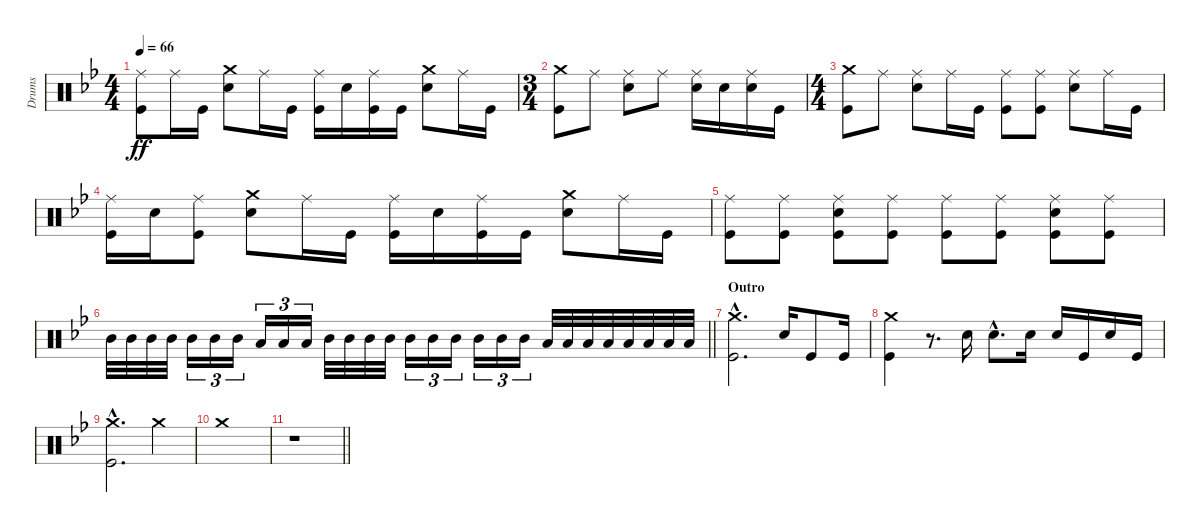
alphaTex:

\track ("Drums" "Drums") {instrument percussion}
\staff {score}
\articulation defaults
\ts (4 4)
\tempo 66
\clef neutral
\ks bb
("Kick (hit)" "Ride (middle)").8{dy ff} "Ride (middle)".16 "Kick (hit)".16 ("Snare (hit) 2" "Crash medium (hit)").8 "Ride (middle)".16 "Kick (hit)".16 ("Kick (hit)" "Ride (middle)").16 "Snare (hit) 2".16 ("Kick (hit)" "Ride (middle)").16 "Kick (hit)".16 ("Snare (hit) 2" "Crash medium (hit)").8 "Ride (middle)".16 "Kick (hit)".16 |
\ts (3 4)
("Kick (hit)" "Crash medium (hit)").8 "Ride (middle)".8 ("Snare (hit) 2" "Ride (middle)").8 "Ride (middle)".8 ("Snare (hit) 2" "Ride (middle)").16 "Snare (hit) 2".16 ("Snare (hit) 2" "Ride (middle)").16 "Kick (hit)".16 |
\ts (4 4)
("Kick (hit)" "Crash medium (hit)").8 "Ride (middle)".8 ("Snare (hit) 2" "Ride (middle)").8 "Ride (middle)".16 "Kick (hit)".16 ("Kick (hit)" "Ride (middle)").8 ("Kick (hit)" "Ride (middle)").8 ("Snare (hit) 2" "Ride (middle)").8 "Ride (middle)".16 "Kick (hit)".16 |
("Kick (hit)" "Ride (middle)").16 "Snare (hit) 2".16 ("Kick (hit)" "Ride (middle)").8 ("Snare (hit) 2" "Crash medium (hit)").8 "Ride (middle)".16 "Kick (hit)".16 ("Kick (hit)" "Ride (middle)").16 "Snare (hit) 2".16 ("Kick (hit)" "Ride (middle)").16 "Kick (hit)".16 ("Snare (hit) 2" "Crash medium (hit)").8 "Ride (middle)".16 "Kick (hit)".16 |
("Kick (hit)" "Ride (middle)").8 ("Kick (hit)" "Ride (middle)").8 ("Kick (hit)" "Snare (hit) 2" "Ride (middle)").8 ("Kick (hit)" "Ride (middle)").8 ("Kick (hit)" "Ride (middle)").8 ("Kick (hit)" "Ride (middle)").8 ("Kick (hit)" "Snare (hit) 2" "Ride (middle)").8 ("Kick (hit)" "Ride (middle)").8 |
\barLineRight lightlight "Mid Tom (hit)".32 "Mid Tom (hit)".32 "Mid Tom (hit)".32 "Mid Tom (hit)".32 "Mid Tom (hit)".16{tu (3 2)} "Mid Tom (hit)".16{tu (3 2)} "Mid Tom (hit)".16{tu (3 2)} "Low Tom (hit)".16{tu (3 2)} "Low Tom (hit)".16{tu (3 2)} "Low Tom (hit)".16{tu (3 2)} "Mid Tom (hit)".32 "Mid Tom (hit)".32 "Mid Tom (hit)".32 "Mid Tom (hit)".32 "Mid Tom (hit)".16{tu (3 2)} "Mid Tom (hit)".16{tu (3 2)} "Mid Tom (hit)".16{tu (3 2)} "Mid Tom (hit)".16{tu (3 2)} "Mid Tom (hit)".16{tu (3 2)} "Mid Tom (hit)".16{tu (3 2)} "Low Tom (hit)".32 "Low Tom (hit)".32 "Low Tom (hit)".32 "Low Tom (hit)".32 "Low Tom (hit)".32 "Low Tom (hit)".32 "Low Tom (hit)".32 "Low Tom (hit)".32
|
\section ("" "Outro")
("Kick (hit)"{hac} "Crash medium (hit)"{hac}).2{d} "Snare (hit) 2".16 "Kick (hit)".8 "Kick (hit)".16 |
("Kick (hit)" "Crash medium (hit)").4 r.8{d} "Snare (hit) 2".16 "Snare (hit) 2"{hac}.8{d} "Snare (hit) 2".16 "Snare (hit) 2".16 "Kick (hit)".16 "Snare (hit) 2".16 "Kick (hit)".16 |
("Kick (hit)"{hac} "Crash medium (hit)"{hac}).2{d} "Crash medium (hit)".4 |
"Crash medium (hit)".1{volume 16} |
\barLineRight lightlight
r.1
